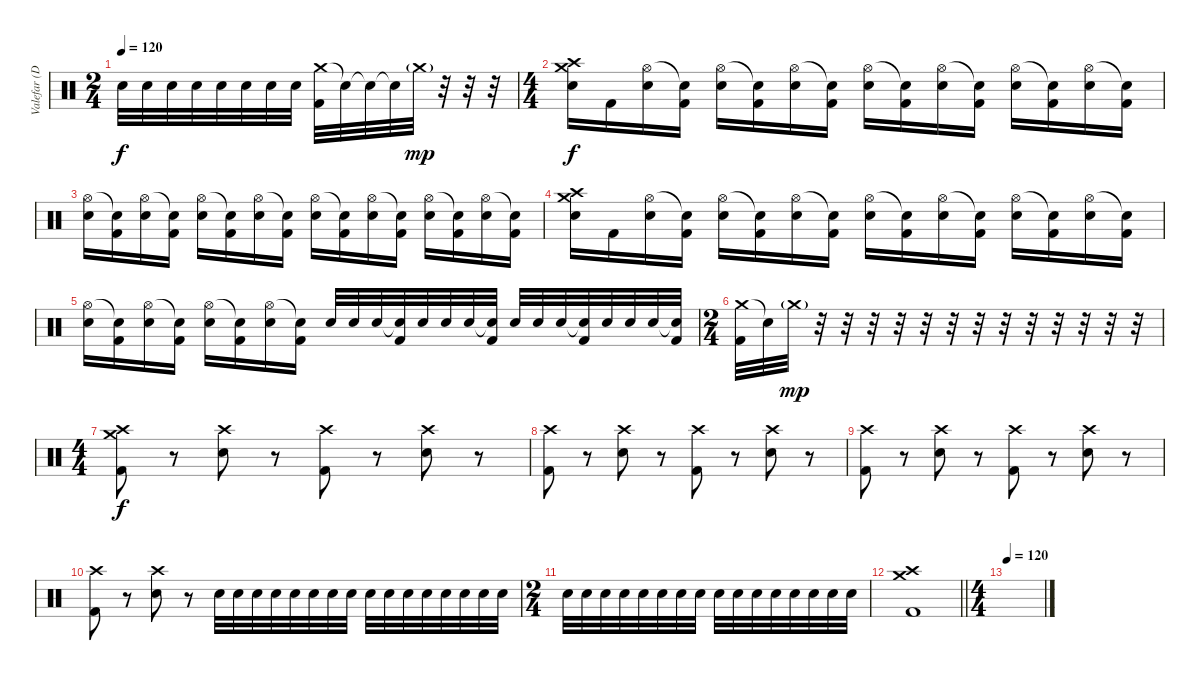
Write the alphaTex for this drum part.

\track ("Valefar (Drums)" "Valefar (D") {instrument percussion}
\staff {score}
\articulation defaults
\ts (2 4)
\tempo 120
\clef neutral
\ks c "Electric Snare (hit)".32{dy f} "Electric Snare (hit)".32 "Electric Snare (hit)".32 "Electric Snare (hit)".32 "Electric Snare (hit)".32 "Electric Snare (hit)".32 "Electric Snare (hit)".32 "Electric Snare (hit)".32
("Crash medium (hit)" "Kick (hit) 2").32 "Snare (hit)"{t}.32 "Snare (hit)"{t}.32 "Snare (hit)"{t}.32 "Crash medium (hit)"{g}.32{dy mp} r.32 r.32 r.32 |
\ts (4 4)
("Crash medium (hit)" "Crash high (hit)" "Electric Snare (hit)").16{dy f} "Kick (hit) 2".16 ("Hi-Hat (open)" "Electric Snare (hit)").16 ("Snare (hit)"{t} "Kick (hit) 2").16 ("Hi-Hat (open)" "Electric Snare (hit)").16 ("Snare (hit)"{t} "Kick (hit) 2").16 ("Hi-Hat (open)" "Electric Snare (hit)").16 ("Snare (hit)"{t} "Kick (hit) 2").16 ("Hi-Hat (open)" "Electric Snare (hit)").16 ("Snare (hit)"{t} "Kick (hit) 2").16 ("Hi-Hat (open)" "Electric Snare (hit)").16 ("Snare (hit)"{t} "Kick (hit) 2").16 ("Hi-Hat (open)" "Electric Snare (hit)").16 ("Snare (hit)"{t} "Kick (hit) 2").16 ("Hi-Hat (open)" "Electric Snare (hit)").16 ("Snare (hit)"{t} "Kick (hit) 2").16 |
("Hi-Hat (open)" "Electric Snare (hit)").16 ("Snare (hit)"{t} "Kick (hit) 2").16 ("Hi-Hat (open)" "Electric Snare (hit)").16 ("Snare (hit)"{t} "Kick (hit) 2").16 ("Hi-Hat (open)" "Electric Snare (hit)").16 ("Snare (hit)"{t} "Kick (hit) 2").16 ("Hi-Hat (open)" "Electric Snare (hit)").16 ("Snare (hit)"{t} "Kick (hit) 2").16 ("Hi-Hat (open)" "Electric Snare (hit)").16 ("Snare (hit)"{t} "Kick (hit) 2").16 ("Hi-Hat (open)" "Electric Snare (hit)").16 ("Snare (hit)"{t} "Kick (hit) 2").16 ("Hi-Hat (open)" "Electric Snare (hit)").16 ("Snare (hit)"{t} "Kick (hit) 2").16 ("Hi-Hat (open)" "Electric Snare (hit)").16 ("Snare (hit)"{t} "Kick (hit) 2").16 |
("Crash medium (hit)" "Crash high (hit)" "Electric Snare (hit)").16 "Kick (hit) 2".16 ("Hi-Hat (open)" "Electric Snare (hit)").16 ("Snare (hit)"{t} "Kick (hit) 2").16 ("Hi-Hat (open)" "Electric Snare (hit)").16 ("Snare (hit)"{t} "Kick (hit) 2").16 ("Hi-Hat (open)" "Electric Snare (hit)").16 ("Snare (hit)"{t} "Kick (hit) 2").16 ("Hi-Hat (open)" "Electric Snare (hit)").16 ("Snare (hit)"{t} "Kick (hit) 2").16 ("Hi-Hat (open)" "Electric Snare (hit)").16 ("Snare (hit)"{t} "Kick (hit) 2").16 ("Hi-Hat (open)" "Electric Snare (hit)").16 ("Snare (hit)"{t} "Kick (hit) 2").16 ("Hi-Hat (open)" "Electric Snare (hit)").16 ("Snare (hit)"{t} "Kick (hit) 2").16 |
("Hi-Hat (open)" "Electric Snare (hit)").16 ("Snare (hit)"{t} "Kick (hit) 2").16 ("Hi-Hat (open)" "Electric Snare (hit)").16 ("Snare (hit)"{t} "Kick (hit) 2").16 ("Hi-Hat (open)" "Electric Snare (hit)").16 ("Snare (hit)"{t} "Kick (hit) 2").16 ("Hi-Hat (open)" "Electric Snare (hit)").16 ("Snare (hit)"{t} "Kick (hit) 2").16 "Electric Snare (hit)".32 "Electric Snare (hit)".32 "Electric Snare (hit)".32 ("Electric Snare (hit)"{t} "Kick (hit) 2").32 "Electric Snare (hit)".32 "Electric Snare (hit)".32 "Electric Snare (hit)".32 ("Snare (hit)"{t} "Kick (hit) 2").32 "Electric Snare (hit)".32 "Electric Snare (hit)".32 "Electric Snare (hit)".32 ("Snare (hit)"{t} "Kick (hit) 2").32 "Electric Snare (hit)".32 "Electric Snare (hit)".32 "Electric Snare (hit)".32 ("Snare (hit)"{t} "Kick (hit) 2").32 |
\ts (2 4)
("Crash medium (hit)" "Kick (hit) 2").32 "Snare (hit)"{t}.32 "Crash medium (hit)"{g}.32{dy mp} r.32 r.32 r.32 r.32 r.32 r.32 r.32 r.32 r.32 r.32 r.32 r.32 r.32 |
\ts (4 4)
("Crash medium (hit)" "Crash high (hit)" "Kick (hit) 2").8{dy f} r.8 ("Crash high (hit)" "Electric Snare (hit)").8 r.8 ("Crash high (hit)" "Kick (hit) 2").8 r.8 ("Crash high (hit)" "Electric Snare (hit)").8 r.8 |
("Crash high (hit)" "Kick (hit) 2").8 r.8 ("Crash high (hit)" "Electric Snare (hit)").8 r.8 ("Crash high (hit)" "Kick (hit) 2").8 r.8 ("Crash high (hit)" "Electric Snare (hit)").8 r.8 |
("Crash high (hit)" "Kick (hit) 2").8 r.8 ("Crash high (hit)" "Electric Snare (hit)").8 r.8 ("Crash high (hit)" "Kick (hit) 2").8 r.8 ("Crash high (hit)" "Electric Snare (hit)").8 r.8 |
("Crash high (hit)" "Kick (hit) 2").8 r.8 ("Crash high (hit)" "Electric Snare (hit)").8 r.8 "Electric Snare (hit)".32 "Electric Snare (hit)".32 "Electric Snare (hit)".32 "Electric Snare (hit)".32 "Electric Snare (hit)".32 "Electric Snare (hit)".32 "Electric Snare (hit)".32 "Electric Snare (hit)".32 "Electric Snare (hit)".32 "Electric Snare (hit)".32 "Electric Snare (hit)".32 "Electric Snare (hit)".32 "Electric Snare (hit)".32 "Electric Snare (hit)".32 "Electric Snare (hit)".32 "Electric Snare (hit)".32 |
\ts (2 4)
"Electric Snare (hit)".32 "Electric Snare (hit)".32 "Electric Snare (hit)".32 "Electric Snare (hit)".32 "Electric Snare (hit)".32 "Electric Snare (hit)".32 "Electric Snare (hit)".32 "Electric Snare (hit)".32 "Electric Snare (hit)".32 "Electric Snare (hit)".32 "Electric Snare (hit)".32 "Electric Snare (hit)".32 "Electric Snare (hit)".32 "Electric Snare (hit)".32 "Electric Snare (hit)".32 "Electric Snare (hit)".32 |
\barLineRight lightlight
("Crash medium (hit)" "Crash high (hit)" "Kick (hit) 2").1 |
\ts (4 4)
\tempo 120
